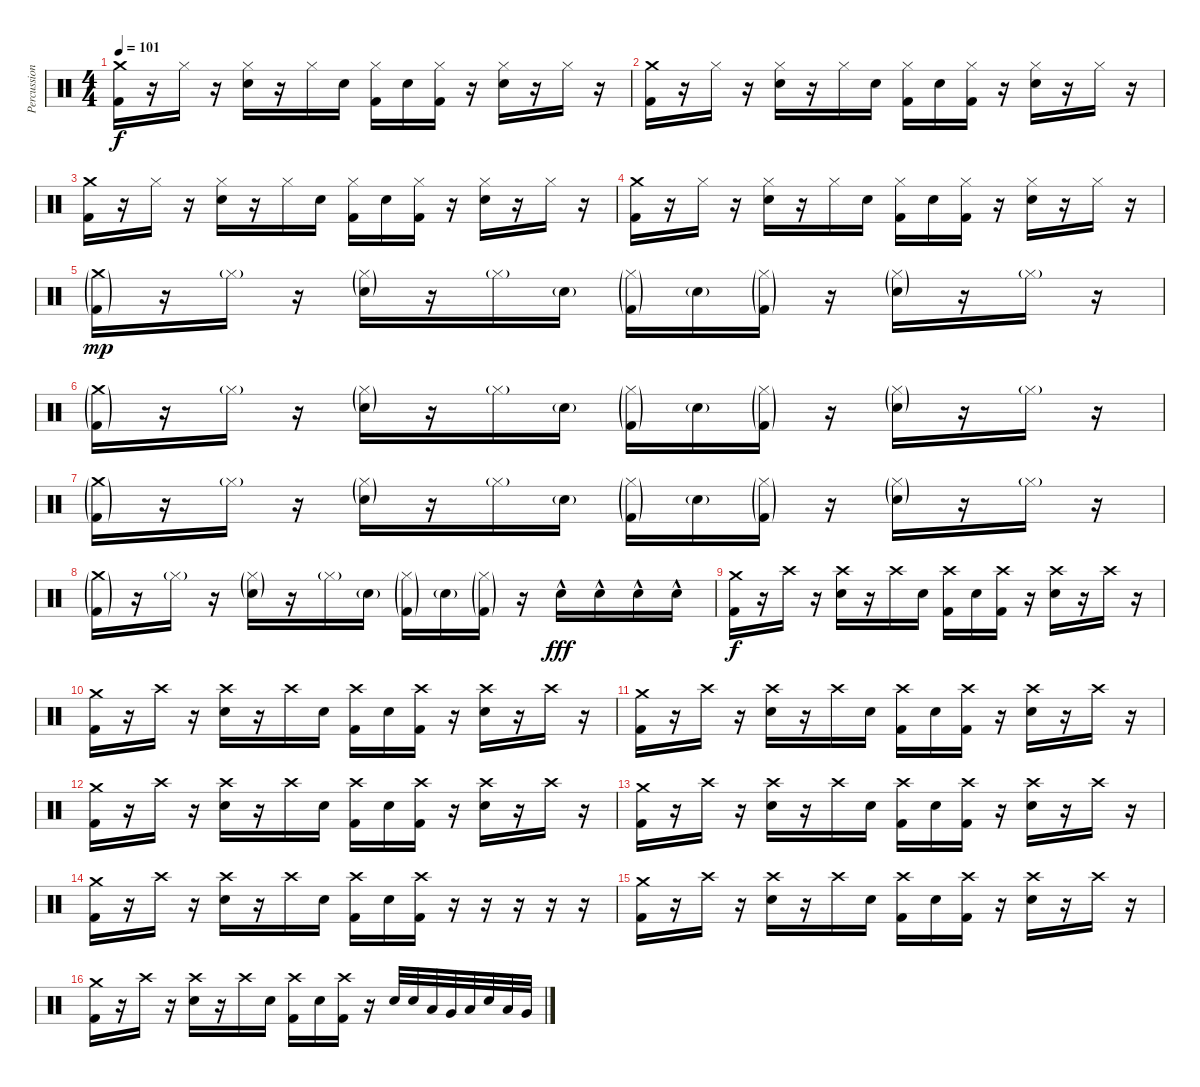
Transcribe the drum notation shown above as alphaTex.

\track ("Percussioni" "Percussion") {instrument percussion}
\staff {score}
\articulation defaults
\ts (4 4)
\tempo 101
\clef neutral
\ks c
("Crash medium (hit)" "Kick (hit) 2").16{dy f} r.16 "Hi-Hat (closed)".16 r.16 ("Hi-Hat (closed)" "Electric Snare (hit)").16 r.16 "Hi-Hat (closed)".16 "Electric Snare (hit)".16 ("Hi-Hat (closed)" "Kick (hit) 2").16 "Electric Snare (hit)".16 ("Hi-Hat (closed)" "Kick (hit) 2").16 r.16 ("Hi-Hat (closed)" "Electric Snare (hit)").16 r.16 "Hi-Hat (closed)".16 r.16 |
("Crash medium (hit)" "Kick (hit) 2").16 r.16 "Hi-Hat (closed)".16 r.16 ("Hi-Hat (closed)" "Electric Snare (hit)").16 r.16 "Hi-Hat (closed)".16 "Electric Snare (hit)".16 ("Hi-Hat (closed)" "Kick (hit) 2").16 "Electric Snare (hit)".16 ("Hi-Hat (closed)" "Kick (hit) 2").16 r.16 ("Hi-Hat (closed)" "Electric Snare (hit)").16 r.16 "Hi-Hat (closed)".16 r.16 |
("Crash medium (hit)" "Kick (hit) 2").16 r.16 "Hi-Hat (closed)".16 r.16 ("Hi-Hat (closed)" "Electric Snare (hit)").16 r.16 "Hi-Hat (closed)".16 "Electric Snare (hit)".16 ("Hi-Hat (closed)" "Kick (hit) 2").16 "Electric Snare (hit)".16 ("Hi-Hat (closed)" "Kick (hit) 2").16 r.16 ("Hi-Hat (closed)" "Electric Snare (hit)").16 r.16 "Hi-Hat (closed)".16 r.16 |
("Crash medium (hit)" "Kick (hit) 2").16 r.16 "Hi-Hat (closed)".16 r.16 ("Hi-Hat (closed)" "Electric Snare (hit)").16 r.16 "Hi-Hat (closed)".16 "Electric Snare (hit)".16 ("Hi-Hat (closed)" "Kick (hit) 2").16 "Electric Snare (hit)".16 ("Hi-Hat (closed)" "Kick (hit) 2").16 r.16 ("Hi-Hat (closed)" "Electric Snare (hit)").16 r.16 "Hi-Hat (closed)".16 r.16 |
("Crash medium (hit)"{g} "Kick (hit) 2"{g}).16{dy mp} r.16 "Hi-Hat (closed)"{g}.16 r.16 ("Hi-Hat (closed)"{g} "Electric Snare (hit)"{g}).16 r.16 "Hi-Hat (closed)"{g}.16 "Electric Snare (hit)"{g}.16 ("Hi-Hat (closed)"{g} "Kick (hit) 2"{g}).16 "Electric Snare (hit)"{g}.16 ("Hi-Hat (closed)"{g} "Kick (hit) 2"{g}).16 r.16 ("Hi-Hat (closed)"{g} "Electric Snare (hit)"{g}).16 r.16 "Hi-Hat (closed)"{g}.16 r.16 |
("Crash medium (hit)"{g} "Kick (hit) 2"{g}).16 r.16 "Hi-Hat (closed)"{g}.16 r.16 ("Hi-Hat (closed)"{g} "Electric Snare (hit)"{g}).16 r.16 "Hi-Hat (closed)"{g}.16 "Electric Snare (hit)"{g}.16 ("Hi-Hat (closed)"{g} "Kick (hit) 2"{g}).16 "Electric Snare (hit)"{g}.16 ("Hi-Hat (closed)"{g} "Kick (hit) 2"{g}).16 r.16 ("Hi-Hat (closed)"{g} "Electric Snare (hit)"{g}).16 r.16 "Hi-Hat (closed)"{g}.16 r.16 |
("Crash medium (hit)"{g} "Kick (hit) 2"{g}).16 r.16 "Hi-Hat (closed)"{g}.16 r.16 ("Hi-Hat (closed)"{g} "Electric Snare (hit)"{g}).16 r.16 "Hi-Hat (closed)"{g}.16 "Electric Snare (hit)"{g}.16 ("Hi-Hat (closed)"{g} "Kick (hit) 2"{g}).16 "Electric Snare (hit)"{g}.16 ("Hi-Hat (closed)"{g} "Kick (hit) 2"{g}).16 r.16 ("Hi-Hat (closed)"{g} "Electric Snare (hit)"{g}).16 r.16 "Hi-Hat (closed)"{g}.16 r.16 |
("Crash medium (hit)"{g} "Kick (hit) 2"{g}).16 r.16 "Hi-Hat (closed)"{g}.16 r.16 ("Hi-Hat (closed)"{g} "Electric Snare (hit)"{g}).16 r.16 "Hi-Hat (closed)"{g}.16 "Electric Snare (hit)"{g}.16 ("Hi-Hat (closed)"{g} "Kick (hit) 2"{g}).16 "Electric Snare (hit)"{g}.16 ("Hi-Hat (closed)"{g} "Kick (hit) 2"{g}).16 r.16 "Electric Snare (hit)"{hac}.16{dy fff} "Electric Snare (hit)"{hac}.16 "Electric Snare (hit)"{hac}.16 "Electric Snare (hit)"{hac}.16 |
("Crash medium (hit)" "Kick (hit) 2").16{dy f} r.16 "Crash high (hit)".16 r.16 ("Crash high (hit)" "Electric Snare (hit)").16 r.16 "Crash high (hit)".16 "Electric Snare (hit)".16 ("Crash high (hit)" "Kick (hit) 2").16 "Electric Snare (hit)".16 ("Crash high (hit)" "Kick (hit) 2").16 r.16 ("Crash high (hit)" "Electric Snare (hit)").16 r.16 "Crash high (hit)".16 r.16 |
("Crash medium (hit)" "Kick (hit) 2").16 r.16 "Crash high (hit)".16 r.16 ("Crash high (hit)" "Electric Snare (hit)").16 r.16 "Crash high (hit)".16 "Electric Snare (hit)".16 ("Crash high (hit)" "Kick (hit) 2").16 "Electric Snare (hit)".16 ("Crash high (hit)" "Kick (hit) 2").16 r.16 ("Crash high (hit)" "Electric Snare (hit)").16 r.16 "Crash high (hit)".16 r.16 |
("Crash medium (hit)" "Kick (hit) 2").16 r.16 "Crash high (hit)".16 r.16 ("Crash high (hit)" "Electric Snare (hit)").16 r.16 "Crash high (hit)".16 "Electric Snare (hit)".16 ("Crash high (hit)" "Kick (hit) 2").16 "Electric Snare (hit)".16 ("Crash high (hit)" "Kick (hit) 2").16 r.16 ("Crash high (hit)" "Electric Snare (hit)").16 r.16 "Crash high (hit)".16 r.16 |
("Crash medium (hit)" "Kick (hit) 2").16 r.16 "Crash high (hit)".16 r.16 ("Crash high (hit)" "Electric Snare (hit)").16 r.16 "Crash high (hit)".16 "Electric Snare (hit)".16 ("Crash high (hit)" "Kick (hit) 2").16 "Electric Snare (hit)".16 ("Crash high (hit)" "Kick (hit) 2").16 r.16 ("Crash high (hit)" "Electric Snare (hit)").16 r.16 "Crash high (hit)".16 r.16 |
("Crash medium (hit)" "Kick (hit) 2").16 r.16 "Crash high (hit)".16 r.16 ("Crash high (hit)" "Electric Snare (hit)").16 r.16 "Crash high (hit)".16 "Electric Snare (hit)".16 ("Crash high (hit)" "Kick (hit) 2").16 "Electric Snare (hit)".16 ("Crash high (hit)" "Kick (hit) 2").16 r.16 ("Crash high (hit)" "Electric Snare (hit)").16 r.16 "Crash high (hit)".16 r.16 |
("Crash medium (hit)" "Kick (hit) 2").16 r.16 "Crash high (hit)".16 r.16 ("Crash high (hit)" "Electric Snare (hit)").16 r.16 "Crash high (hit)".16 "Electric Snare (hit)".16 ("Crash high (hit)" "Kick (hit) 2").16 "Electric Snare (hit)".16 ("Crash high (hit)" "Kick (hit) 2").16 r.16 r.16 r.16 r.16 r.16 |
("Crash medium (hit)" "Kick (hit) 2").16 r.16 "Crash high (hit)".16 r.16 ("Crash high (hit)" "Electric Snare (hit)").16 r.16 "Crash high (hit)".16 "Electric Snare (hit)".16 ("Crash high (hit)" "Kick (hit) 2").16 "Electric Snare (hit)".16 ("Crash high (hit)" "Kick (hit) 2").16 r.16 ("Crash high (hit)" "Electric Snare (hit)").16 r.16 "Crash high (hit)".16 r.16 |
("Crash medium (hit)" "Kick (hit) 2").16 r.16 "Crash high (hit)".16 r.16 ("Crash high (hit)" "Electric Snare (hit)").16 r.16 "Crash high (hit)".16 "Electric Snare (hit)".16 ("Crash high (hit)" "Kick (hit) 2").16 "Electric Snare (hit)".16 ("Crash high (hit)" "Kick (hit) 2").16 r.16 "Electric Snare (hit)".32 "Electric Snare (hit)".32 "Low Tom (hit)".32 "Very Low Tom (hit)".32 "Low Floor Tom (hit)".32 "Electric Snare (hit)".32 "Low Tom (hit)".32 "Very Low Tom (hit)".32
